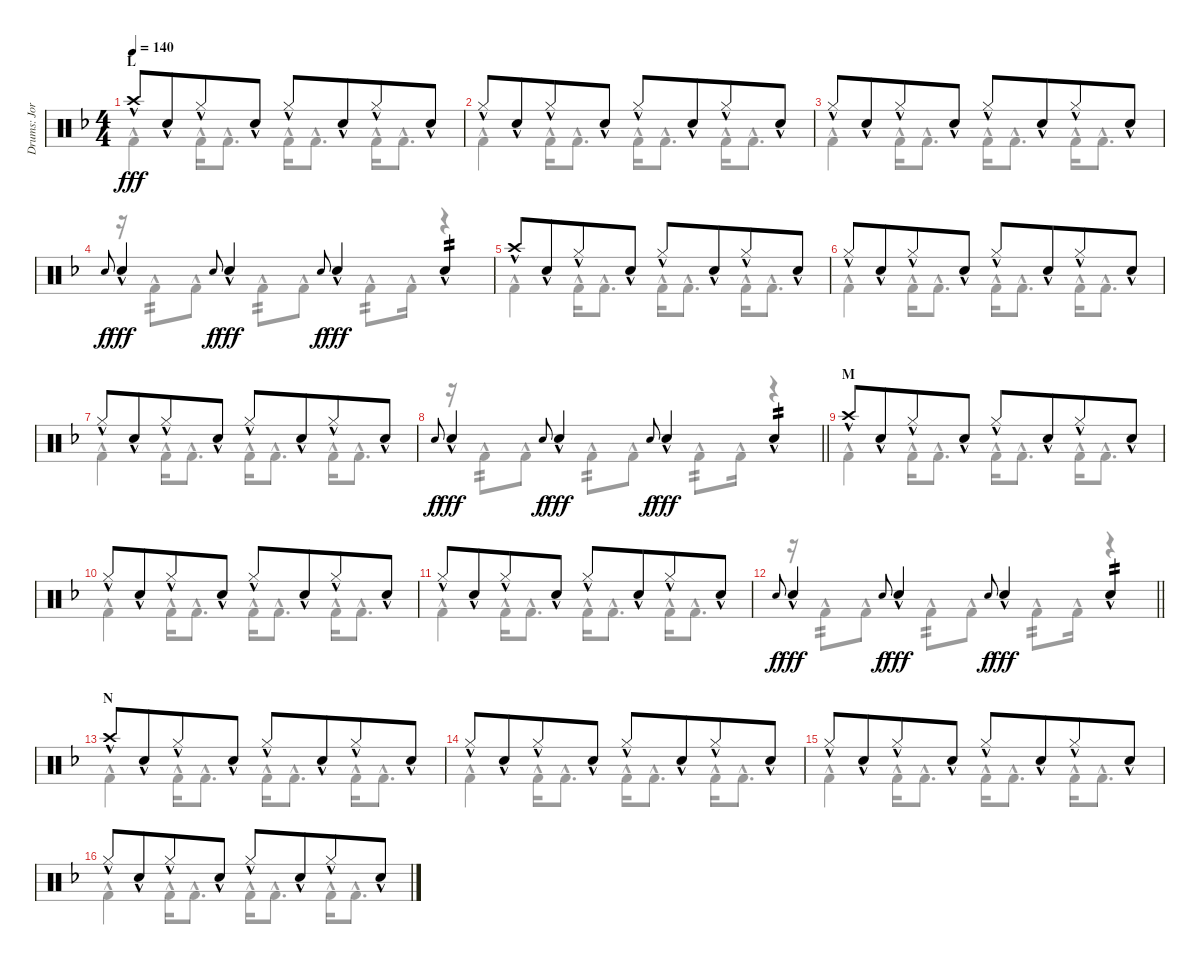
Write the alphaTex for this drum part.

\track ("Drums: Jorg" "Drums: Jor") {instrument percussion}
\staff {score}
\articulation defaults
\voice
\ts (4 4)
\section ("" "L")
\tempo 140
\clef neutral
\ks f "Crash high (hit)"{hac}.8{dy fff} "Snare (hit) 2"{hac}.8{beam merge} "Hi-Hat (closed)"{hac}.8 "Snare (hit) 2"{hac}.8 "Hi-Hat (closed)"{hac}.8 "Snare (hit) 2"{hac}.8{beam merge} "Hi-Hat (closed)"{hac}.8 "Snare (hit) 2"{hac}.8
|
"Hi-Hat (closed)"{hac}.8 "Snare (hit) 2"{hac}.8{beam merge} "Hi-Hat (closed)"{hac}.8 "Snare (hit) 2"{hac}.8 "Hi-Hat (closed)"{hac}.8 "Snare (hit) 2"{hac}.8{beam merge} "Hi-Hat (closed)"{hac}.8 "Snare (hit) 2"{hac}.8 |
"Hi-Hat (closed)"{hac}.8 "Snare (hit) 2"{hac}.8{beam merge} "Hi-Hat (closed)"{hac}.8 "Snare (hit) 2"{hac}.8 "Hi-Hat (closed)"{hac}.8 "Snare (hit) 2"{hac}.8{beam merge} "Hi-Hat (closed)"{hac}.8 "Snare (hit) 2"{hac}.8 |
"Snare (hit) 2".8{gr onbeat dy f} "Electric Snare (hit)"{hac}.4{dy fff} "Snare (hit) 2".8{gr onbeat dy f} "Electric Snare (hit)"{hac}.4{dy fff} "Snare (hit) 2".8{gr onbeat dy f} "Electric Snare (hit)"{hac}.4{dy fff} "Snare (hit) 2"{hac}.4{tp 2} |
"Crash high (hit)"{hac}.8 "Snare (hit) 2"{hac}.8{beam merge} "Hi-Hat (closed)"{hac}.8 "Snare (hit) 2"{hac}.8 "Hi-Hat (closed)"{hac}.8 "Snare (hit) 2"{hac}.8{beam merge} "Hi-Hat (closed)"{hac}.8 "Snare (hit) 2"{hac}.8 |
"Hi-Hat (closed)"{hac}.8 "Snare (hit) 2"{hac}.8{beam merge} "Hi-Hat (closed)"{hac}.8 "Snare (hit) 2"{hac}.8 "Hi-Hat (closed)"{hac}.8 "Snare (hit) 2"{hac}.8{beam merge} "Hi-Hat (closed)"{hac}.8 "Snare (hit) 2"{hac}.8 |
"Hi-Hat (closed)"{hac}.8 "Snare (hit) 2"{hac}.8{beam merge} "Hi-Hat (closed)"{hac}.8 "Snare (hit) 2"{hac}.8 "Hi-Hat (closed)"{hac}.8 "Snare (hit) 2"{hac}.8{beam merge} "Hi-Hat (closed)"{hac}.8 "Snare (hit) 2"{hac}.8 |
\barLineRight lightlight "Snare (hit) 2".8{gr onbeat dy f} "Electric Snare (hit)"{hac}.4{dy fff} "Snare (hit) 2".8{gr onbeat dy f} "Electric Snare (hit)"{hac}.4{dy fff} "Snare (hit) 2".8{gr onbeat dy f} "Electric Snare (hit)"{hac}.4{dy fff} "Snare (hit) 2"{hac}.4{tp 2}
|
\section ("" "M")
"Crash high (hit)"{hac}.8 "Snare (hit) 2"{hac}.8{beam merge} "Hi-Hat (closed)"{hac}.8 "Snare (hit) 2"{hac}.8 "Hi-Hat (closed)"{hac}.8 "Snare (hit) 2"{hac}.8{beam merge} "Hi-Hat (closed)"{hac}.8 "Snare (hit) 2"{hac}.8 |
"Hi-Hat (closed)"{hac}.8 "Snare (hit) 2"{hac}.8{beam merge} "Hi-Hat (closed)"{hac}.8 "Snare (hit) 2"{hac}.8 "Hi-Hat (closed)"{hac}.8 "Snare (hit) 2"{hac}.8{beam merge} "Hi-Hat (closed)"{hac}.8 "Snare (hit) 2"{hac}.8 |
"Hi-Hat (closed)"{hac}.8 "Snare (hit) 2"{hac}.8{beam merge} "Hi-Hat (closed)"{hac}.8 "Snare (hit) 2"{hac}.8 "Hi-Hat (closed)"{hac}.8 "Snare (hit) 2"{hac}.8{beam merge} "Hi-Hat (closed)"{hac}.8 "Snare (hit) 2"{hac}.8 |
\barLineRight lightlight "Snare (hit) 2".8{gr onbeat dy f} "Electric Snare (hit)"{hac}.4{dy fff} "Snare (hit) 2".8{gr onbeat dy f} "Electric Snare (hit)"{hac}.4{dy fff} "Snare (hit) 2".8{gr onbeat dy f} "Electric Snare (hit)"{hac}.4{dy fff} "Snare (hit) 2"{hac}.4{tp 2}
|
\section ("" "N")
"Crash high (hit)"{hac}.8 "Snare (hit) 2"{hac}.8{beam merge} "Hi-Hat (closed)"{hac}.8 "Snare (hit) 2"{hac}.8 "Hi-Hat (closed)"{hac}.8 "Snare (hit) 2"{hac}.8{beam merge} "Hi-Hat (closed)"{hac}.8 "Snare (hit) 2"{hac}.8 |
"Hi-Hat (closed)"{hac}.8 "Snare (hit) 2"{hac}.8{beam merge} "Hi-Hat (closed)"{hac}.8 "Snare (hit) 2"{hac}.8 "Hi-Hat (closed)"{hac}.8 "Snare (hit) 2"{hac}.8{beam merge} "Hi-Hat (closed)"{hac}.8 "Snare (hit) 2"{hac}.8 |
"Hi-Hat (closed)"{hac}.8 "Snare (hit) 2"{hac}.8{beam merge} "Hi-Hat (closed)"{hac}.8 "Snare (hit) 2"{hac}.8 "Hi-Hat (closed)"{hac}.8 "Snare (hit) 2"{hac}.8{beam merge} "Hi-Hat (closed)"{hac}.8 "Snare (hit) 2"{hac}.8 |
"Hi-Hat (closed)"{hac}.8 "Snare (hit) 2"{hac}.8{beam merge} "Hi-Hat (closed)"{hac}.8 "Snare (hit) 2"{hac}.8 "Hi-Hat (closed)"{hac}.8 "Snare (hit) 2"{hac}.8{beam merge} "Hi-Hat (closed)"{hac}.8 "Snare (hit) 2"{hac}.8
\voice
\clef neutral
\ottava regular
\simile none
\ks f "Kick (hit) 2"{hac}.4{dy fff} "Kick (hit) 2"{hac}.16 "Kick (hit) 2"{hac}.8{d} "Kick (hit) 2"{hac}.16 "Kick (hit) 2"{hac}.8{d} "Kick (hit) 2"{hac}.16 "Kick (hit) 2"{hac}.8{d}
|
"Kick (hit) 2"{hac}.4 "Kick (hit) 2"{hac}.16 "Kick (hit) 2"{hac}.8{d} "Kick (hit) 2"{hac}.16 "Kick (hit) 2"{hac}.8{d} "Kick (hit) 2"{hac}.16 "Kick (hit) 2"{hac}.8{d} |
"Kick (hit) 2"{hac}.4 "Kick (hit) 2"{hac}.16 "Kick (hit) 2"{hac}.8{d} "Kick (hit) 2"{hac}.16 "Kick (hit) 2"{hac}.8{d} "Kick (hit) 2"{hac}.16 "Kick (hit) 2"{hac}.8{d} |
r.16 "Kick (hit) 2"{hac}.8{tp 2} "Kick (hit) 2"{hac}.8 "Kick (hit) 2"{hac}.8{tp 2} "Kick (hit) 2"{hac}.8 "Kick (hit) 2"{hac}.8{tp 2} "Kick (hit) 2"{hac}.16 r.4 |
"Kick (hit) 2"{hac}.4 "Kick (hit) 2"{hac}.16 "Kick (hit) 2"{hac}.8{d} "Kick (hit) 2"{hac}.16 "Kick (hit) 2"{hac}.8{d} "Kick (hit) 2"{hac}.16 "Kick (hit) 2"{hac}.8{d} |
"Kick (hit) 2"{hac}.4 "Kick (hit) 2"{hac}.16 "Kick (hit) 2"{hac}.8{d} "Kick (hit) 2"{hac}.16 "Kick (hit) 2"{hac}.8{d} "Kick (hit) 2"{hac}.16 "Kick (hit) 2"{hac}.8{d} |
"Kick (hit) 2"{hac}.4 "Kick (hit) 2"{hac}.16 "Kick (hit) 2"{hac}.8{d} "Kick (hit) 2"{hac}.16 "Kick (hit) 2"{hac}.8{d} "Kick (hit) 2"{hac}.16 "Kick (hit) 2"{hac}.8{d} |
\barLineRight lightlight
r.16 "Kick (hit) 2"{hac}.8{tp 2} "Kick (hit) 2"{hac}.8 "Kick (hit) 2"{hac}.8{tp 2} "Kick (hit) 2"{hac}.8 "Kick (hit) 2"{hac}.8{tp 2} "Kick (hit) 2"{hac}.16 r.4 |
"Kick (hit) 2"{hac}.4 "Kick (hit) 2"{hac}.16 "Kick (hit) 2"{hac}.8{d} "Kick (hit) 2"{hac}.16 "Kick (hit) 2"{hac}.8{d} "Kick (hit) 2"{hac}.16 "Kick (hit) 2"{hac}.8{d} |
"Kick (hit) 2"{hac}.4 "Kick (hit) 2"{hac}.16 "Kick (hit) 2"{hac}.8{d} "Kick (hit) 2"{hac}.16 "Kick (hit) 2"{hac}.8{d} "Kick (hit) 2"{hac}.16 "Kick (hit) 2"{hac}.8{d} |
"Kick (hit) 2"{hac}.4 "Kick (hit) 2"{hac}.16 "Kick (hit) 2"{hac}.8{d} "Kick (hit) 2"{hac}.16 "Kick (hit) 2"{hac}.8{d} "Kick (hit) 2"{hac}.16 "Kick (hit) 2"{hac}.8{d} |
\barLineRight lightlight
r.16 "Kick (hit) 2"{hac}.8{tp 2} "Kick (hit) 2"{hac}.8 "Kick (hit) 2"{hac}.8{tp 2} "Kick (hit) 2"{hac}.8 "Kick (hit) 2"{hac}.8{tp 2} "Kick (hit) 2"{hac}.16 r.4 |
"Kick (hit) 2"{hac}.4 "Kick (hit) 2"{hac}.16 "Kick (hit) 2"{hac}.8{d} "Kick (hit) 2"{hac}.16 "Kick (hit) 2"{hac}.8{d} "Kick (hit) 2"{hac}.16 "Kick (hit) 2"{hac}.8{d} |
"Kick (hit) 2"{hac}.4 "Kick (hit) 2"{hac}.16 "Kick (hit) 2"{hac}.8{d} "Kick (hit) 2"{hac}.16 "Kick (hit) 2"{hac}.8{d} "Kick (hit) 2"{hac}.16 "Kick (hit) 2"{hac}.8{d} |
"Kick (hit) 2"{hac}.4 "Kick (hit) 2"{hac}.16 "Kick (hit) 2"{hac}.8{d} "Kick (hit) 2"{hac}.16 "Kick (hit) 2"{hac}.8{d} "Kick (hit) 2"{hac}.16 "Kick (hit) 2"{hac}.8{d} |
"Kick (hit) 2"{hac}.4 "Kick (hit) 2"{hac}.16 "Kick (hit) 2"{hac}.8{d} "Kick (hit) 2"{hac}.16 "Kick (hit) 2"{hac}.8{d} "Kick (hit) 2"{hac}.16 "Kick (hit) 2"{hac}.8{d}
